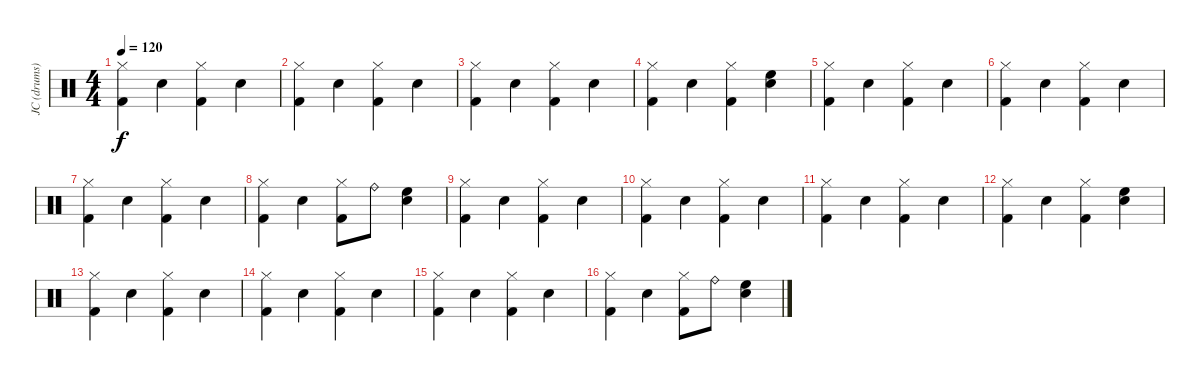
\track ("JC (drums)" "JC (drums)") {instrument percussion}
\staff {score}
\articulation defaults
\ts (4 4)
\tempo 120
\clef neutral
\ks c
("Hi-Hat (closed)" "Kick (hit) 2").4{dy f} "Electric Snare (hit)".4 ("Hi-Hat (closed)" "Kick (hit) 2").4 "Snare (hit) 2".4 |
("Hi-Hat (closed)" "Kick (hit) 2").4 "Electric Snare (hit)".4 ("Hi-Hat (closed)" "Kick (hit) 2").4 "Snare (hit) 2".4 |
("Hi-Hat (closed)" "Kick (hit) 2").4 "Electric Snare (hit)".4 ("Hi-Hat (closed)" "Kick (hit) 2").4 "Snare (hit) 2".4 |
("Hi-Hat (closed)" "Kick (hit) 2").4 "Electric Snare (hit)".4 ("Hi-Hat (closed)" "Kick (hit) 2").4 ("High Floor Tom (hit)" "Snare (hit) 2").4 |
("Hi-Hat (closed)" "Kick (hit) 2").4 "Electric Snare (hit)".4 ("Hi-Hat (closed)" "Kick (hit) 2").4 "Snare (hit) 2".4 |
("Hi-Hat (closed)" "Kick (hit) 2").4 "Electric Snare (hit)".4 ("Hi-Hat (closed)" "Kick (hit) 2").4 "Snare (hit) 2".4 |
("Hi-Hat (closed)" "Kick (hit) 2").4 "Electric Snare (hit)".4 ("Hi-Hat (closed)" "Kick (hit) 2").4 "Snare (hit) 2".4 |
("Hi-Hat (closed)" "Kick (hit) 2").4 "Electric Snare (hit)".4 ("Hi-Hat (closed)" "Kick (hit) 2").8 "Ride (bell)".8 ("High Floor Tom (hit)" "Snare (hit) 2").4 |
("Hi-Hat (closed)" "Kick (hit) 2").4 "Electric Snare (hit)".4 ("Hi-Hat (closed)" "Kick (hit) 2").4 "Snare (hit) 2".4 |
("Hi-Hat (closed)" "Kick (hit) 2").4 "Electric Snare (hit)".4 ("Hi-Hat (closed)" "Kick (hit) 2").4 "Snare (hit) 2".4 |
("Hi-Hat (closed)" "Kick (hit) 2").4 "Electric Snare (hit)".4 ("Hi-Hat (closed)" "Kick (hit) 2").4 "Snare (hit) 2".4 |
("Hi-Hat (closed)" "Kick (hit) 2").4 "Electric Snare (hit)".4 ("Hi-Hat (closed)" "Kick (hit) 2").4 ("High Floor Tom (hit)" "Snare (hit) 2").4 |
("Hi-Hat (closed)" "Kick (hit) 2").4 "Electric Snare (hit)".4 ("Hi-Hat (closed)" "Kick (hit) 2").4 "Snare (hit) 2".4 |
("Hi-Hat (closed)" "Kick (hit) 2").4 "Electric Snare (hit)".4 ("Hi-Hat (closed)" "Kick (hit) 2").4 "Snare (hit) 2".4 |
("Hi-Hat (closed)" "Kick (hit) 2").4 "Electric Snare (hit)".4 ("Hi-Hat (closed)" "Kick (hit) 2").4 "Snare (hit) 2".4 |
("Hi-Hat (closed)" "Kick (hit) 2").4 "Electric Snare (hit)".4 ("Hi-Hat (closed)" "Kick (hit) 2").8 "Ride (bell)".8 ("High Floor Tom (hit)" "Snare (hit) 2").4
